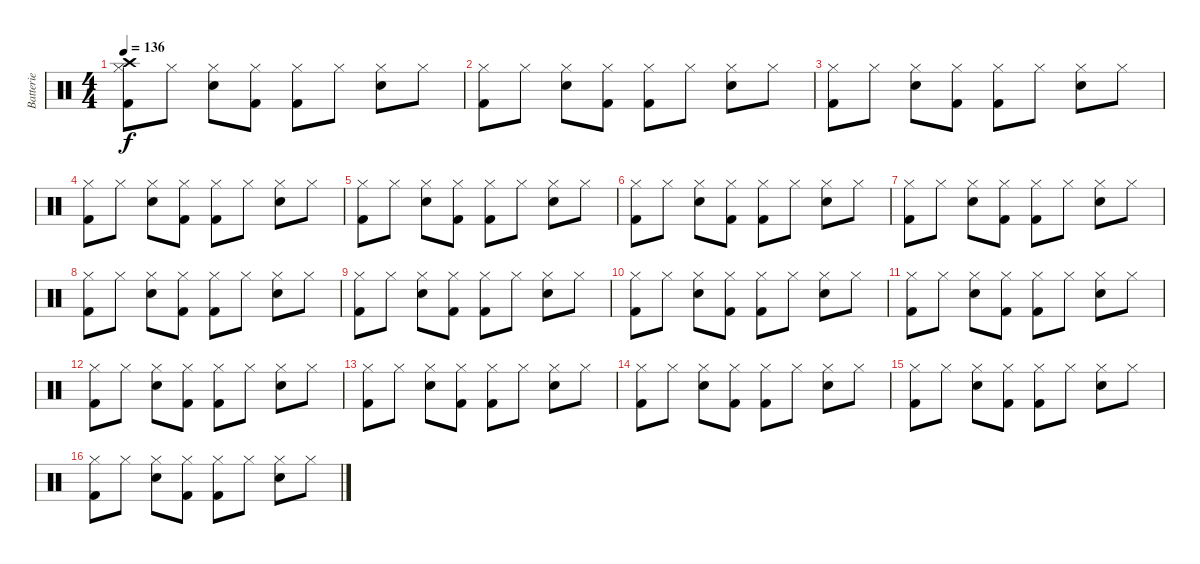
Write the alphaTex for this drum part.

\track ("Batterie" "Batterie") {instrument percussion}
\staff {score}
\articulation defaults
\ts (4 4)
\tempo 136
\clef neutral
\ks c
("Crash high (hit)" "Hi-Hat (closed)" "Kick (hit) 2").8{dy f} "Hi-Hat (closed)".8 ("Hi-Hat (closed)" "Electric Snare (hit)").8 ("Hi-Hat (closed)" "Kick (hit) 2").8 ("Hi-Hat (closed)" "Kick (hit) 2").8 "Hi-Hat (closed)".8 ("Hi-Hat (closed)" "Electric Snare (hit)").8 "Hi-Hat (closed)".8 |
("Hi-Hat (closed)" "Kick (hit) 2").8 "Hi-Hat (closed)".8 ("Hi-Hat (closed)" "Electric Snare (hit)").8 ("Hi-Hat (closed)" "Kick (hit) 2").8 ("Hi-Hat (closed)" "Kick (hit) 2").8 "Hi-Hat (closed)".8 ("Hi-Hat (closed)" "Electric Snare (hit)").8 "Hi-Hat (closed)".8 |
("Hi-Hat (closed)" "Kick (hit) 2").8 "Hi-Hat (closed)".8 ("Hi-Hat (closed)" "Electric Snare (hit)").8 ("Hi-Hat (closed)" "Kick (hit) 2").8 ("Hi-Hat (closed)" "Kick (hit) 2").8 "Hi-Hat (closed)".8 ("Hi-Hat (closed)" "Electric Snare (hit)").8 "Hi-Hat (closed)".8 |
("Hi-Hat (closed)" "Kick (hit) 2").8 "Hi-Hat (closed)".8 ("Hi-Hat (closed)" "Electric Snare (hit)").8 ("Hi-Hat (closed)" "Kick (hit) 2").8 ("Hi-Hat (closed)" "Kick (hit) 2").8 "Hi-Hat (closed)".8 ("Hi-Hat (closed)" "Electric Snare (hit)").8 "Hi-Hat (closed)".8 |
("Hi-Hat (closed)" "Kick (hit) 2").8 "Hi-Hat (closed)".8 ("Hi-Hat (closed)" "Electric Snare (hit)").8 ("Hi-Hat (closed)" "Kick (hit) 2").8 ("Hi-Hat (closed)" "Kick (hit) 2").8 "Hi-Hat (closed)".8 ("Hi-Hat (closed)" "Electric Snare (hit)").8 "Hi-Hat (closed)".8 |
("Hi-Hat (closed)" "Kick (hit) 2").8 "Hi-Hat (closed)".8 ("Hi-Hat (closed)" "Electric Snare (hit)").8 ("Hi-Hat (closed)" "Kick (hit) 2").8 ("Hi-Hat (closed)" "Kick (hit) 2").8 "Hi-Hat (closed)".8 ("Hi-Hat (closed)" "Electric Snare (hit)").8 "Hi-Hat (closed)".8 |
("Hi-Hat (closed)" "Kick (hit) 2").8 "Hi-Hat (closed)".8 ("Hi-Hat (closed)" "Electric Snare (hit)").8 ("Hi-Hat (closed)" "Kick (hit) 2").8 ("Hi-Hat (closed)" "Kick (hit) 2").8 "Hi-Hat (closed)".8 ("Hi-Hat (closed)" "Electric Snare (hit)").8 "Hi-Hat (closed)".8 |
("Hi-Hat (closed)" "Kick (hit) 2").8 "Hi-Hat (closed)".8 ("Hi-Hat (closed)" "Electric Snare (hit)").8 ("Hi-Hat (closed)" "Kick (hit) 2").8 ("Hi-Hat (closed)" "Kick (hit) 2").8 "Hi-Hat (closed)".8 ("Hi-Hat (closed)" "Electric Snare (hit)").8 "Hi-Hat (closed)".8 |
("Hi-Hat (closed)" "Kick (hit) 2").8 "Hi-Hat (closed)".8 ("Hi-Hat (closed)" "Electric Snare (hit)").8 ("Hi-Hat (closed)" "Kick (hit) 2").8 ("Hi-Hat (closed)" "Kick (hit) 2").8 "Hi-Hat (closed)".8 ("Hi-Hat (closed)" "Electric Snare (hit)").8 "Hi-Hat (closed)".8 |
("Hi-Hat (closed)" "Kick (hit) 2").8 "Hi-Hat (closed)".8 ("Hi-Hat (closed)" "Electric Snare (hit)").8 ("Hi-Hat (closed)" "Kick (hit) 2").8 ("Hi-Hat (closed)" "Kick (hit) 2").8 "Hi-Hat (closed)".8 ("Hi-Hat (closed)" "Electric Snare (hit)").8 "Hi-Hat (closed)".8 |
("Hi-Hat (closed)" "Kick (hit) 2").8 "Hi-Hat (closed)".8 ("Hi-Hat (closed)" "Electric Snare (hit)").8 ("Hi-Hat (closed)" "Kick (hit) 2").8 ("Hi-Hat (closed)" "Kick (hit) 2").8 "Hi-Hat (closed)".8 ("Hi-Hat (closed)" "Electric Snare (hit)").8 "Hi-Hat (closed)".8 |
("Hi-Hat (closed)" "Kick (hit) 2").8 "Hi-Hat (closed)".8 ("Hi-Hat (closed)" "Electric Snare (hit)").8 ("Hi-Hat (closed)" "Kick (hit) 2").8 ("Hi-Hat (closed)" "Kick (hit) 2").8 "Hi-Hat (closed)".8 ("Hi-Hat (closed)" "Electric Snare (hit)").8 "Hi-Hat (closed)".8 |
("Hi-Hat (closed)" "Kick (hit) 2").8 "Hi-Hat (closed)".8 ("Hi-Hat (closed)" "Electric Snare (hit)").8 ("Hi-Hat (closed)" "Kick (hit) 2").8 ("Hi-Hat (closed)" "Kick (hit) 2").8 "Hi-Hat (closed)".8 ("Hi-Hat (closed)" "Electric Snare (hit)").8 "Hi-Hat (closed)".8 |
("Hi-Hat (closed)" "Kick (hit) 2").8 "Hi-Hat (closed)".8 ("Hi-Hat (closed)" "Electric Snare (hit)").8 ("Hi-Hat (closed)" "Kick (hit) 2").8 ("Hi-Hat (closed)" "Kick (hit) 2").8 "Hi-Hat (closed)".8 ("Hi-Hat (closed)" "Electric Snare (hit)").8 "Hi-Hat (closed)".8 |
("Hi-Hat (closed)" "Kick (hit) 2").8 "Hi-Hat (closed)".8 ("Hi-Hat (closed)" "Electric Snare (hit)").8 ("Hi-Hat (closed)" "Kick (hit) 2").8 ("Hi-Hat (closed)" "Kick (hit) 2").8 "Hi-Hat (closed)".8 ("Hi-Hat (closed)" "Electric Snare (hit)").8 "Hi-Hat (closed)".8 |
("Hi-Hat (closed)" "Kick (hit) 2").8 "Hi-Hat (closed)".8 ("Hi-Hat (closed)" "Electric Snare (hit)").8 ("Hi-Hat (closed)" "Kick (hit) 2").8 ("Hi-Hat (closed)" "Kick (hit) 2").8 "Hi-Hat (closed)".8 ("Hi-Hat (closed)" "Electric Snare (hit)").8 "Hi-Hat (closed)".8
